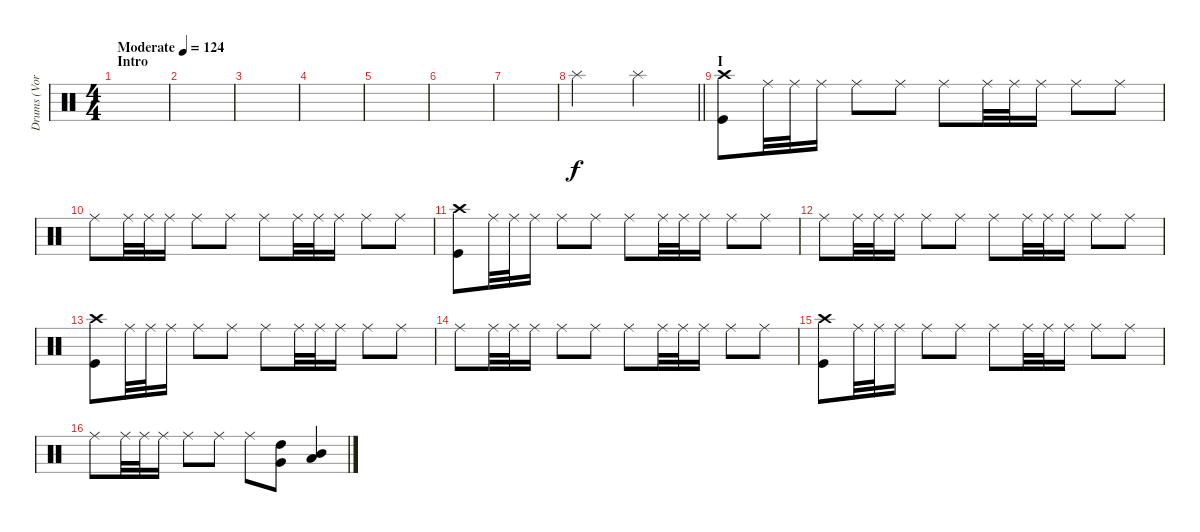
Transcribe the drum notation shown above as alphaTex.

\track ("Drums (Vortex)" "Drums (Vor") {instrument percussion}
\staff {score}
\articulation defaults
\ts (4 4)
\section ("" "Intro")
\tempo (124 "Moderate")
\clef neutral
\ks c
|
|
|
|
|
|
|
\barLineRight lightlight "Splash (hit)".2 "Splash (hit)".2
|
\section ("" "I")
("Crash high (hit)" "Kick (hit)").8 "Ride (middle)".32 "Ride (middle)".32 "Ride (middle)".16 "Ride (middle)".8 "Ride (middle)".8 "Ride (middle)".8 "Ride (middle)".32 "Ride (middle)".32 "Ride (middle)".16 "Ride (middle)".8 "Ride (middle)".8 |
"Ride (middle)".8 "Ride (middle)".32 "Ride (middle)".32 "Ride (middle)".16 "Ride (middle)".8 "Ride (middle)".8 "Ride (middle)".8 "Ride (middle)".32 "Ride (middle)".32 "Ride (middle)".16 "Ride (middle)".8 "Ride (middle)".8 |
("Crash high (hit)" "Kick (hit)").8 "Ride (middle)".32 "Ride (middle)".32 "Ride (middle)".16 "Ride (middle)".8 "Ride (middle)".8 "Ride (middle)".8 "Ride (middle)".32 "Ride (middle)".32 "Ride (middle)".16 "Ride (middle)".8 "Ride (middle)".8 |
"Ride (middle)".8 "Ride (middle)".32 "Ride (middle)".32 "Ride (middle)".16 "Ride (middle)".8 "Ride (middle)".8 "Ride (middle)".8 "Ride (middle)".32 "Ride (middle)".32 "Ride (middle)".16 "Ride (middle)".8 "Ride (middle)".8 |
("Crash high (hit)" "Kick (hit)").8 "Ride (middle)".32 "Ride (middle)".32 "Ride (middle)".16 "Ride (middle)".8 "Ride (middle)".8 "Ride (middle)".8 "Ride (middle)".32 "Ride (middle)".32 "Ride (middle)".16 "Ride (middle)".8 "Ride (middle)".8 |
"Ride (middle)".8 "Ride (middle)".32 "Ride (middle)".32 "Ride (middle)".16 "Ride (middle)".8 "Ride (middle)".8 "Ride (middle)".8 "Ride (middle)".32 "Ride (middle)".32 "Ride (middle)".16 "Ride (middle)".8 "Ride (middle)".8 |
("Crash high (hit)" "Kick (hit)").8 "Ride (middle)".32 "Ride (middle)".32 "Ride (middle)".16 "Ride (middle)".8 "Ride (middle)".8 "Ride (middle)".8 "Ride (middle)".32 "Ride (middle)".32 "Ride (middle)".16 "Ride (middle)".8 "Ride (middle)".8 |
"Ride (middle)".8 "Ride (middle)".32 "Ride (middle)".32 "Ride (middle)".16 "Ride (middle)".8 "Ride (middle)".8 "Ride (middle)".8 ("High Tom (hit)" "Very Low Tom (hit)").8 ("Mid Tom (hit)" "Low Floor Tom (hit)").4
